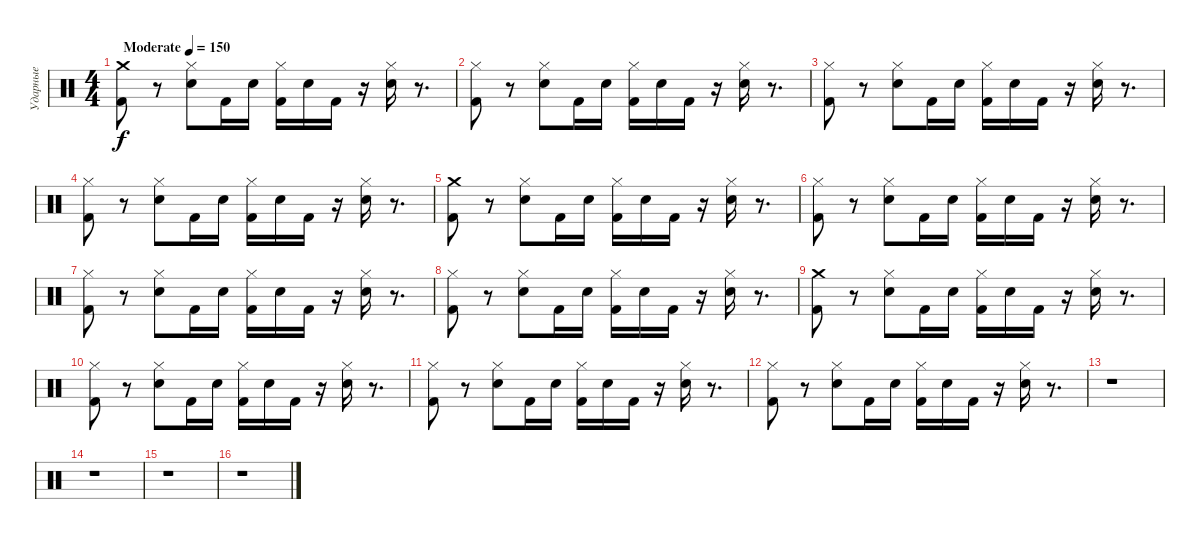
\track ("Ударные" "Ударные") {instrument percussion}
\staff {score}
\articulation defaults
\ts (4 4)
\tempo (150 "Moderate")
\clef neutral
\ks c
("Crash medium (hit)" "Kick (hit) 2").8{dy f} r.8 ("Hi-Hat (closed)" "Electric Snare (hit)").8 "Kick (hit) 2".16 "Electric Snare (hit)".16 ("Hi-Hat (closed)" "Kick (hit) 2").16 "Electric Snare (hit)".16 "Kick (hit) 2".16 r.16 ("Hi-Hat (closed)" "Electric Snare (hit)").16 r.8{d} |
("Hi-Hat (closed)" "Kick (hit) 2").8 r.8 ("Hi-Hat (closed)" "Electric Snare (hit)").8 "Kick (hit) 2".16 "Electric Snare (hit)".16 ("Hi-Hat (closed)" "Kick (hit) 2").16 "Electric Snare (hit)".16 "Kick (hit) 2".16 r.16 ("Hi-Hat (closed)" "Electric Snare (hit)").16 r.8{d} |
("Hi-Hat (closed)" "Kick (hit) 2").8 r.8 ("Hi-Hat (closed)" "Electric Snare (hit)").8 "Kick (hit) 2".16 "Electric Snare (hit)".16 ("Hi-Hat (closed)" "Kick (hit) 2").16 "Electric Snare (hit)".16 "Kick (hit) 2".16 r.16 ("Hi-Hat (closed)" "Electric Snare (hit)").16 r.8{d} |
("Hi-Hat (closed)" "Kick (hit) 2").8 r.8 ("Hi-Hat (closed)" "Electric Snare (hit)").8 "Kick (hit) 2".16 "Electric Snare (hit)".16 ("Hi-Hat (closed)" "Kick (hit) 2").16 "Electric Snare (hit)".16 "Kick (hit) 2".16 r.16 ("Hi-Hat (closed)" "Electric Snare (hit)").16 r.8{d} |
("Crash medium (hit)" "Kick (hit) 2").8 r.8 ("Hi-Hat (closed)" "Electric Snare (hit)").8 "Kick (hit) 2".16 "Electric Snare (hit)".16 ("Hi-Hat (closed)" "Kick (hit) 2").16 "Electric Snare (hit)".16 "Kick (hit) 2".16 r.16 ("Hi-Hat (closed)" "Electric Snare (hit)").16 r.8{d} |
("Hi-Hat (closed)" "Kick (hit) 2").8 r.8 ("Hi-Hat (closed)" "Electric Snare (hit)").8 "Kick (hit) 2".16 "Electric Snare (hit)".16 ("Hi-Hat (closed)" "Kick (hit) 2").16 "Electric Snare (hit)".16 "Kick (hit) 2".16 r.16 ("Hi-Hat (closed)" "Electric Snare (hit)").16 r.8{d} |
("Hi-Hat (closed)" "Kick (hit) 2").8 r.8 ("Hi-Hat (closed)" "Electric Snare (hit)").8 "Kick (hit) 2".16 "Electric Snare (hit)".16 ("Hi-Hat (closed)" "Kick (hit) 2").16 "Electric Snare (hit)".16 "Kick (hit) 2".16 r.16 ("Hi-Hat (closed)" "Electric Snare (hit)").16 r.8{d} |
("Hi-Hat (closed)" "Kick (hit) 2").8 r.8 ("Hi-Hat (closed)" "Electric Snare (hit)").8 "Kick (hit) 2".16 "Electric Snare (hit)".16 ("Hi-Hat (closed)" "Kick (hit) 2").16 "Electric Snare (hit)".16 "Kick (hit) 2".16 r.16 ("Hi-Hat (closed)" "Electric Snare (hit)").16 r.8{d} |
("Crash medium (hit)" "Kick (hit) 2").8 r.8 ("Hi-Hat (closed)" "Electric Snare (hit)").8 "Kick (hit) 2".16 "Electric Snare (hit)".16 ("Hi-Hat (closed)" "Kick (hit) 2").16 "Electric Snare (hit)".16 "Kick (hit) 2".16 r.16 ("Hi-Hat (closed)" "Electric Snare (hit)").16 r.8{d} |
("Hi-Hat (closed)" "Kick (hit) 2").8 r.8 ("Hi-Hat (closed)" "Electric Snare (hit)").8 "Kick (hit) 2".16 "Electric Snare (hit)".16 ("Hi-Hat (closed)" "Kick (hit) 2").16 "Electric Snare (hit)".16 "Kick (hit) 2".16 r.16 ("Hi-Hat (closed)" "Electric Snare (hit)").16 r.8{d} |
("Hi-Hat (closed)" "Kick (hit) 2").8 r.8 ("Hi-Hat (closed)" "Electric Snare (hit)").8 "Kick (hit) 2".16 "Electric Snare (hit)".16 ("Hi-Hat (closed)" "Kick (hit) 2").16 "Electric Snare (hit)".16 "Kick (hit) 2".16 r.16 ("Hi-Hat (closed)" "Electric Snare (hit)").16 r.8{d} |
("Hi-Hat (closed)" "Kick (hit) 2").8 r.8 ("Hi-Hat (closed)" "Electric Snare (hit)").8 "Kick (hit) 2".16 "Electric Snare (hit)".16 ("Hi-Hat (closed)" "Kick (hit) 2").16 "Electric Snare (hit)".16 "Kick (hit) 2".16 r.16 ("Hi-Hat (closed)" "Electric Snare (hit)").16 r.8{d} |
r.1 |
r.1 |
r.1 |
r.1
